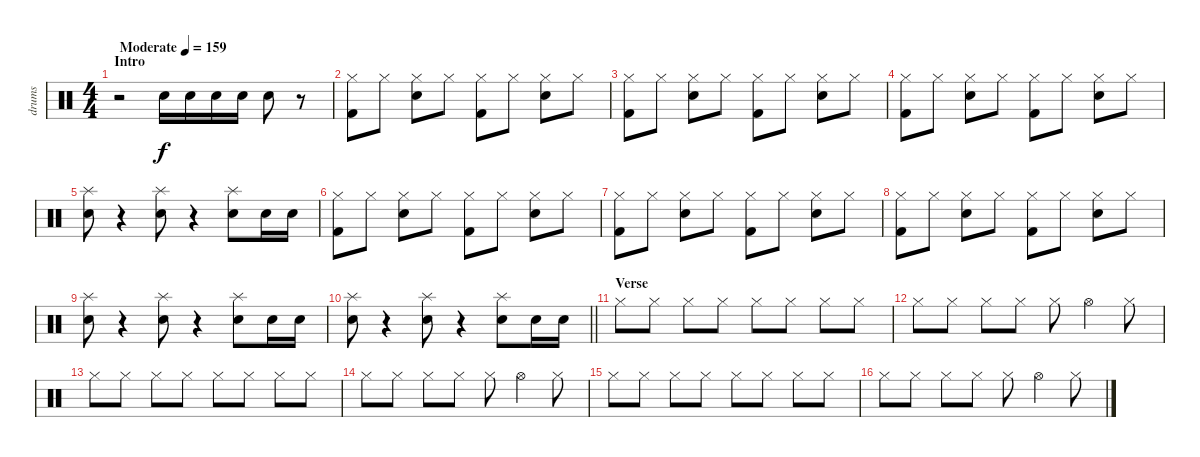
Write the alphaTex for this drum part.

\track ("drums" "drums") {instrument percussion}
\staff {score}
\articulation defaults
\ts (4 4)
\section ("" "Intro")
\tempo (159 "Moderate")
\clef neutral
\ks c
r.2{dy f} "Electric Snare (hit)".16 "Electric Snare (hit)".16 "Electric Snare (hit)".16 "Electric Snare (hit)".16 "Electric Snare (hit)".8 r.8 |
("Hi-Hat (closed)" "Kick (hit) 2").8 "Hi-Hat (closed)".8 ("Hi-Hat (closed)" "Electric Snare (hit)").8 "Hi-Hat (closed)".8 ("Hi-Hat (closed)" "Kick (hit) 2").8 "Hi-Hat (closed)".8 ("Hi-Hat (closed)" "Electric Snare (hit)").8 "Hi-Hat (closed)".8 |
("Hi-Hat (closed)" "Kick (hit) 2").8 "Hi-Hat (closed)".8 ("Hi-Hat (closed)" "Electric Snare (hit)").8 "Hi-Hat (closed)".8 ("Hi-Hat (closed)" "Kick (hit) 2").8 "Hi-Hat (closed)".8 ("Hi-Hat (closed)" "Electric Snare (hit)").8 "Hi-Hat (closed)".8 |
("Hi-Hat (closed)" "Kick (hit) 2").8 "Hi-Hat (closed)".8 ("Hi-Hat (closed)" "Electric Snare (hit)").8 "Hi-Hat (closed)".8 ("Hi-Hat (closed)" "Kick (hit) 2").8 "Hi-Hat (closed)".8 ("Hi-Hat (closed)" "Electric Snare (hit)").8 "Hi-Hat (closed)".8 |
("Splash (hit)" "Electric Snare (hit)").8 r.4 ("Splash (hit)" "Electric Snare (hit)").8 r.4 ("Splash (hit)" "Electric Snare (hit)").8 "Electric Snare (hit)".16 "Electric Snare (hit)".16 |
("Hi-Hat (closed)" "Kick (hit) 2").8 "Hi-Hat (closed)".8 ("Hi-Hat (closed)" "Electric Snare (hit)").8 "Hi-Hat (closed)".8 ("Hi-Hat (closed)" "Kick (hit) 2").8 "Hi-Hat (closed)".8 ("Hi-Hat (closed)" "Electric Snare (hit)").8 "Hi-Hat (closed)".8 |
("Hi-Hat (closed)" "Kick (hit) 2").8 "Hi-Hat (closed)".8 ("Hi-Hat (closed)" "Electric Snare (hit)").8 "Hi-Hat (closed)".8 ("Hi-Hat (closed)" "Kick (hit) 2").8 "Hi-Hat (closed)".8 ("Hi-Hat (closed)" "Electric Snare (hit)").8 "Hi-Hat (closed)".8 |
("Hi-Hat (closed)" "Kick (hit) 2").8 "Hi-Hat (closed)".8 ("Hi-Hat (closed)" "Electric Snare (hit)").8 "Hi-Hat (closed)".8 ("Hi-Hat (closed)" "Kick (hit) 2").8 "Hi-Hat (closed)".8 ("Hi-Hat (closed)" "Electric Snare (hit)").8 "Hi-Hat (closed)".8 |
("Splash (hit)" "Electric Snare (hit)").8 r.4 ("Splash (hit)" "Electric Snare (hit)").8 r.4 ("Splash (hit)" "Electric Snare (hit)").8 "Electric Snare (hit)".16 "Electric Snare (hit)".16 |
\barLineRight lightlight
("Splash (hit)" "Electric Snare (hit)").8 r.4 ("Splash (hit)" "Electric Snare (hit)").8 r.4 ("Splash (hit)" "Electric Snare (hit)").8 "Electric Snare (hit)".16 "Electric Snare (hit)".16 |
\section ("" "Verse")
"Hi-Hat (closed)".8 "Hi-Hat (closed)".8 "Hi-Hat (closed)".8 "Hi-Hat (closed)".8 "Hi-Hat (closed)".8 "Hi-Hat (closed)".8 "Hi-Hat (closed)".8 "Hi-Hat (closed)".8 |
"Hi-Hat (closed)".8 "Hi-Hat (closed)".8 "Hi-Hat (closed)".8 "Hi-Hat (closed)".8 "Hi-Hat (closed)".8 "Hi-Hat (open)".4 "Hi-Hat (closed)".8 |
"Hi-Hat (closed)".8 "Hi-Hat (closed)".8 "Hi-Hat (closed)".8 "Hi-Hat (closed)".8 "Hi-Hat (closed)".8 "Hi-Hat (closed)".8 "Hi-Hat (closed)".8 "Hi-Hat (closed)".8 |
"Hi-Hat (closed)".8 "Hi-Hat (closed)".8 "Hi-Hat (closed)".8 "Hi-Hat (closed)".8 "Hi-Hat (closed)".8 "Hi-Hat (open)".4 "Hi-Hat (closed)".8 |
"Hi-Hat (closed)".8 "Hi-Hat (closed)".8 "Hi-Hat (closed)".8 "Hi-Hat (closed)".8 "Hi-Hat (closed)".8 "Hi-Hat (closed)".8 "Hi-Hat (closed)".8 "Hi-Hat (closed)".8 |
"Hi-Hat (closed)".8 "Hi-Hat (closed)".8 "Hi-Hat (closed)".8 "Hi-Hat (closed)".8 "Hi-Hat (closed)".8 "Hi-Hat (open)".4 "Hi-Hat (closed)".8
